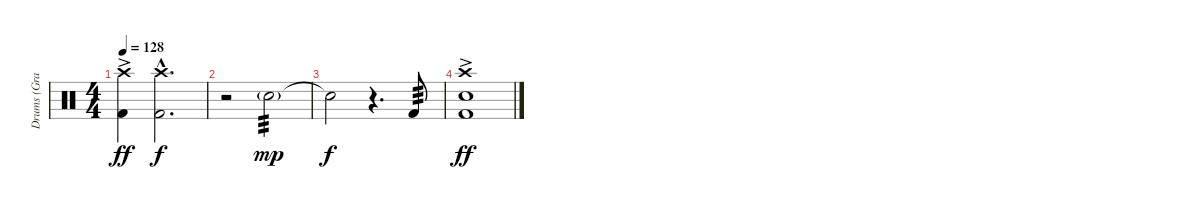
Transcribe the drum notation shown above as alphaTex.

\track ("Drums (Graham)" "Drums (Gra") {instrument percussion}
\staff {score}
\articulation defaults
\ts (4 4)
\tempo 128
\clef neutral
\ks c
("Crash high (hit)" "Kick (hit) 2"{ac}).4{dy ff} ("Crash high (hit)"{hac} "Kick (hit) 2"{hac}).2{d dy f} |
r.2 "Snare (hit) 2"{g}.2{tp 3 dy mp} |
"Snare (hit) 2"{t}.2{dy f} r.4{d} "Kick (hit) 2".8{tp 3} |
("Crash high (hit)" "Snare (hit) 2" "Kick (hit) 2"{ac}).1{dy ff}
